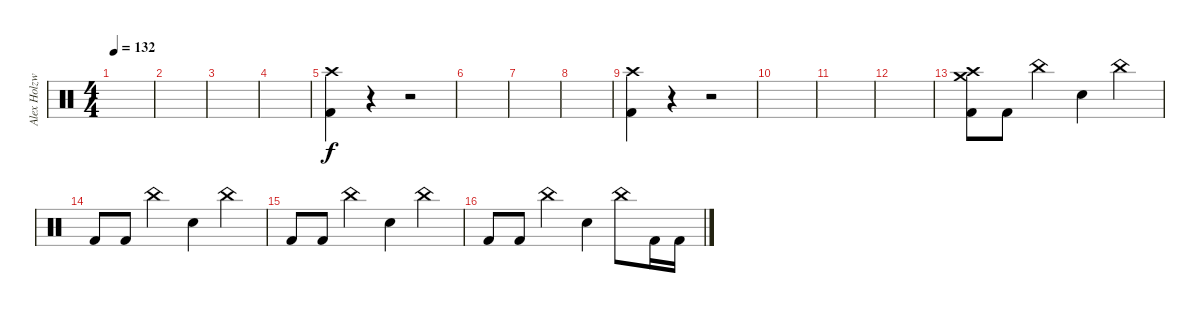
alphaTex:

\track ("Alex Holzwarth" "Alex Holzw") {instrument percussion}
\staff {score}
\articulation defaults
\ts (4 4)
\tempo 132
\clef neutral
\ks c
|
|
|
|
("Crash high (hit)" "Kick (hit) 2").4 r.4 r.2 |
|
|
|
("Crash high (hit)" "Kick (hit) 2").4 r.4 r.2 |
|
|
|
("Crash high (hit)" "Crash medium (hit)" "Kick (hit) 2").8 "Kick (hit) 2".8 "China (hit)".4 "Snare (hit) 2".4 "China (hit)".4 |
"Kick (hit) 2".8 "Kick (hit) 2".8 "China (hit)".4 "Snare (hit) 2".4 "China (hit)".4 |
"Kick (hit) 2".8 "Kick (hit) 2".8 "China (hit)".4 "Snare (hit) 2".4 "China (hit)".4 |
"Kick (hit) 2".8 "Kick (hit) 2".8 "China (hit)".4 "Snare (hit) 2".4 "China (hit)".8 "Kick (hit) 2".16 "Kick (hit) 2".16
